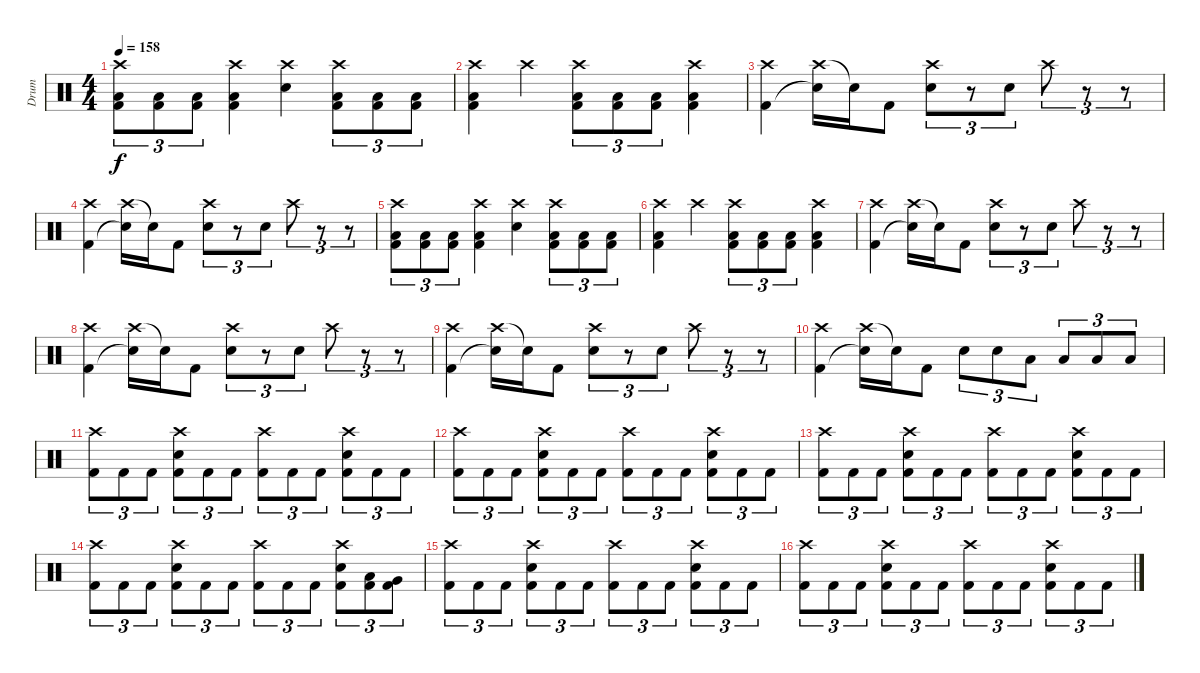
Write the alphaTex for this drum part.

\track ("Drum" "Drum") {instrument percussion}
\staff {score}
\articulation defaults
\ts (4 4)
\tempo 158
\clef neutral
\ks c
("Crash high (hit)" "Low Floor Tom (hit)" "Kick (hit) 2").8{tu (3 2) dy f} ("Low Floor Tom (hit)" "Kick (hit) 2").8{tu (3 2)} ("Low Floor Tom (hit)" "Kick (hit) 2").8{tu (3 2)} ("Crash high (hit)" "Low Floor Tom (hit)" "Kick (hit) 2").4 ("Crash high (hit)" "Electric Snare (hit)").4 ("Crash high (hit)" "Low Floor Tom (hit)" "Kick (hit) 2").8{tu (3 2)} ("Low Floor Tom (hit)" "Kick (hit) 2").8{tu (3 2)} ("Low Floor Tom (hit)" "Kick (hit) 2").8{tu (3 2)} |
("Crash high (hit)" "Low Floor Tom (hit)" "Kick (hit) 2").4 "Crash high (hit)".4 ("Crash high (hit)" "Low Floor Tom (hit)" "Kick (hit) 2").8{tu (3 2)} ("Low Floor Tom (hit)" "Kick (hit) 2").8{tu (3 2)} ("Low Floor Tom (hit)" "Kick (hit) 2").8{tu (3 2)} ("Crash high (hit)" "Low Floor Tom (hit)" "Kick (hit) 2").4 |
("Crash high (hit)" "Kick (hit) 2").4 ("Crash high (hit)" "Snare (hit)"{t}).16 "Snare (hit)"{t}.16 "Kick (hit) 2".8 ("Crash high (hit)" "Electric Snare (hit)").8{tu (3 2)} r.8{tu (3 2)} "Electric Snare (hit)".8{tu (3 2)} "Crash high (hit)".8{tu (3 2)} r.8{tu (3 2)} r.8{tu (3 2)} |
("Crash high (hit)" "Kick (hit) 2").4 ("Crash high (hit)" "Snare (hit)"{t}).16 "Snare (hit)"{t}.16 "Kick (hit) 2".8 ("Crash high (hit)" "Electric Snare (hit)").8{tu (3 2)} r.8{tu (3 2)} "Electric Snare (hit)".8{tu (3 2)} "Crash high (hit)".8{tu (3 2)} r.8{tu (3 2)} r.8{tu (3 2)} |
("Crash high (hit)" "Low Floor Tom (hit)" "Kick (hit) 2").8{tu (3 2)} ("Low Floor Tom (hit)" "Kick (hit) 2").8{tu (3 2)} ("Low Floor Tom (hit)" "Kick (hit) 2").8{tu (3 2)} ("Crash high (hit)" "Low Floor Tom (hit)" "Kick (hit) 2").4 ("Crash high (hit)" "Electric Snare (hit)").4 ("Crash high (hit)" "Low Floor Tom (hit)" "Kick (hit) 2").8{tu (3 2)} ("Low Floor Tom (hit)" "Kick (hit) 2").8{tu (3 2)} ("Low Floor Tom (hit)" "Kick (hit) 2").8{tu (3 2)} |
("Crash high (hit)" "Low Floor Tom (hit)" "Kick (hit) 2").4 "Crash high (hit)".4 ("Crash high (hit)" "Low Floor Tom (hit)" "Kick (hit) 2").8{tu (3 2)} ("Low Floor Tom (hit)" "Kick (hit) 2").8{tu (3 2)} ("Low Floor Tom (hit)" "Kick (hit) 2").8{tu (3 2)} ("Crash high (hit)" "Low Floor Tom (hit)" "Kick (hit) 2").4 |
("Crash high (hit)" "Kick (hit) 2").4 ("Crash high (hit)" "Snare (hit)"{t}).16 "Snare (hit)"{t}.16 "Kick (hit) 2".8 ("Crash high (hit)" "Electric Snare (hit)").8{tu (3 2)} r.8{tu (3 2)} "Electric Snare (hit)".8{tu (3 2)} "Crash high (hit)".8{tu (3 2)} r.8{tu (3 2)} r.8{tu (3 2)} |
("Crash high (hit)" "Kick (hit) 2").4 ("Crash high (hit)" "Snare (hit)"{t}).16 "Snare (hit)"{t}.16 "Kick (hit) 2".8 ("Crash high (hit)" "Electric Snare (hit)").8{tu (3 2)} r.8{tu (3 2)} "Electric Snare (hit)".8{tu (3 2)} "Crash high (hit)".8{tu (3 2)} r.8{tu (3 2)} r.8{tu (3 2)} |
("Crash high (hit)" "Kick (hit) 2").4 ("Crash high (hit)" "Snare (hit)"{t}).16 "Snare (hit)"{t}.16 "Kick (hit) 2".8 ("Crash high (hit)" "Electric Snare (hit)").8{tu (3 2)} r.8{tu (3 2)} "Electric Snare (hit)".8{tu (3 2)} "Crash high (hit)".8{tu (3 2)} r.8{tu (3 2)} r.8{tu (3 2)} |
("Crash high (hit)" "Kick (hit) 2").4 ("Crash high (hit)" "Snare (hit)"{t}).16 "Snare (hit)"{t}.16 "Kick (hit) 2".8 "Electric Snare (hit)".8{tu (3 2)} "Electric Snare (hit)".8{tu (3 2)} "Low Tom (hit)".8{tu (3 2)} "Low Tom (hit)".8{tu (3 2)} "Low Floor Tom (hit)".8{tu (3 2)} "Low Floor Tom (hit)".8{tu (3 2)} |
("Crash high (hit)" "Kick (hit) 2").8{tu (3 2)} "Kick (hit) 2".8{tu (3 2)} "Kick (hit) 2".8{tu (3 2)} ("Crash high (hit)" "Electric Snare (hit)" "Kick (hit) 2").8{tu (3 2)} "Kick (hit) 2".8{tu (3 2)} "Kick (hit) 2".8{tu (3 2)} ("Crash high (hit)" "Kick (hit) 2").8{tu (3 2)} "Kick (hit) 2".8{tu (3 2)} "Kick (hit) 2".8{tu (3 2)} ("Crash high (hit)" "Electric Snare (hit)" "Kick (hit) 2").8{tu (3 2)} "Kick (hit) 2".8{tu (3 2)} "Kick (hit) 2".8{tu (3 2)} |
("Crash high (hit)" "Kick (hit) 2").8{tu (3 2)} "Kick (hit) 2".8{tu (3 2)} "Kick (hit) 2".8{tu (3 2)} ("Crash high (hit)" "Electric Snare (hit)" "Kick (hit) 2").8{tu (3 2)} "Kick (hit) 2".8{tu (3 2)} "Kick (hit) 2".8{tu (3 2)} ("Crash high (hit)" "Kick (hit) 2").8{tu (3 2)} "Kick (hit) 2".8{tu (3 2)} "Kick (hit) 2".8{tu (3 2)} ("Crash high (hit)" "Electric Snare (hit)" "Kick (hit) 2").8{tu (3 2)} "Kick (hit) 2".8{tu (3 2)} "Kick (hit) 2".8{tu (3 2)} |
("Crash high (hit)" "Kick (hit) 2").8{tu (3 2)} "Kick (hit) 2".8{tu (3 2)} "Kick (hit) 2".8{tu (3 2)} ("Crash high (hit)" "Electric Snare (hit)" "Kick (hit) 2").8{tu (3 2)} "Kick (hit) 2".8{tu (3 2)} "Kick (hit) 2".8{tu (3 2)} ("Crash high (hit)" "Kick (hit) 2").8{tu (3 2)} "Kick (hit) 2".8{tu (3 2)} "Kick (hit) 2".8{tu (3 2)} ("Crash high (hit)" "Electric Snare (hit)" "Kick (hit) 2").8{tu (3 2)} "Kick (hit) 2".8{tu (3 2)} "Kick (hit) 2".8{tu (3 2)} |
("Crash high (hit)" "Kick (hit) 2").8{tu (3 2)} "Kick (hit) 2".8{tu (3 2)} "Kick (hit) 2".8{tu (3 2)} ("Crash high (hit)" "Electric Snare (hit)" "Kick (hit) 2").8{tu (3 2)} "Kick (hit) 2".8{tu (3 2)} "Kick (hit) 2".8{tu (3 2)} ("Crash high (hit)" "Kick (hit) 2").8{tu (3 2)} "Kick (hit) 2".8{tu (3 2)} "Kick (hit) 2".8{tu (3 2)} ("Crash high (hit)" "Electric Snare (hit)" "Kick (hit) 2").8{tu (3 2)} ("Low Tom (hit)" "Kick (hit) 2").8{tu (3 2)} ("Very Low Tom (hit)" "Kick (hit) 2").8{tu (3 2)} |
("Crash high (hit)" "Kick (hit) 2").8{tu (3 2)} "Kick (hit) 2".8{tu (3 2)} "Kick (hit) 2".8{tu (3 2)} ("Crash high (hit)" "Electric Snare (hit)" "Kick (hit) 2").8{tu (3 2)} "Kick (hit) 2".8{tu (3 2)} "Kick (hit) 2".8{tu (3 2)} ("Crash high (hit)" "Kick (hit) 2").8{tu (3 2)} "Kick (hit) 2".8{tu (3 2)} "Kick (hit) 2".8{tu (3 2)} ("Crash high (hit)" "Electric Snare (hit)" "Kick (hit) 2").8{tu (3 2)} "Kick (hit) 2".8{tu (3 2)} "Kick (hit) 2".8{tu (3 2)} |
("Crash high (hit)" "Kick (hit) 2").8{tu (3 2)} "Kick (hit) 2".8{tu (3 2)} "Kick (hit) 2".8{tu (3 2)} ("Crash high (hit)" "Electric Snare (hit)" "Kick (hit) 2").8{tu (3 2)} "Kick (hit) 2".8{tu (3 2)} "Kick (hit) 2".8{tu (3 2)} ("Crash high (hit)" "Kick (hit) 2").8{tu (3 2)} "Kick (hit) 2".8{tu (3 2)} "Kick (hit) 2".8{tu (3 2)} ("Crash high (hit)" "Electric Snare (hit)" "Kick (hit) 2").8{tu (3 2)} "Kick (hit) 2".8{tu (3 2)} "Kick (hit) 2".8{tu (3 2)}
